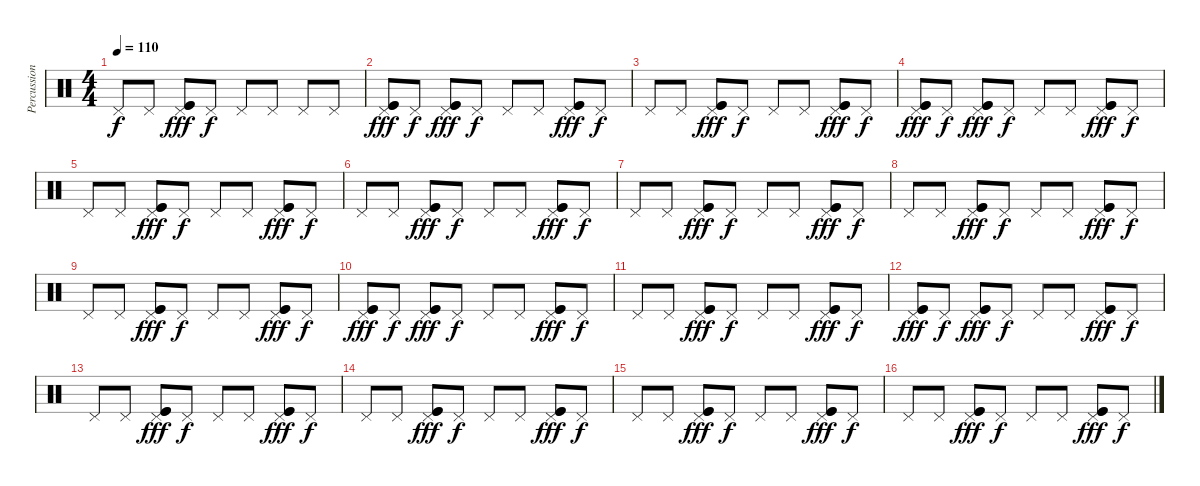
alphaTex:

\track ("Percussion" "Percussion") {instrument percussion}
\staff {score}
\articulation defaults
\ts (4 4)
\tempo 110
\clef neutral
\ks c "Pedal Hi-Hat (hit)".8{dy f} "Pedal Hi-Hat (hit)".8
("Pedal Hi-Hat (hit)" "Kick (hit)" "Kick (hit)").8{dy fff} "Pedal Hi-Hat (hit)".8{dy f} "Pedal Hi-Hat (hit)".8 "Pedal Hi-Hat (hit)".8 "Pedal Hi-Hat (hit)".8 "Pedal Hi-Hat (hit)".8 |
("Pedal Hi-Hat (hit)" "Kick (hit)" "Kick (hit)").8{dy fff} "Pedal Hi-Hat (hit)".8{dy f} ("Pedal Hi-Hat (hit)" "Kick (hit)" "Kick (hit)").8{dy fff} "Pedal Hi-Hat (hit)".8{dy f} "Pedal Hi-Hat (hit)".8 "Pedal Hi-Hat (hit)".8 ("Pedal Hi-Hat (hit)" "Kick (hit)" "Kick (hit)").8{dy fff} "Pedal Hi-Hat (hit)".8{dy f} |
"Pedal Hi-Hat (hit)".8 "Pedal Hi-Hat (hit)".8 ("Pedal Hi-Hat (hit)" "Kick (hit)" "Kick (hit)").8{dy fff} "Pedal Hi-Hat (hit)".8{dy f} "Pedal Hi-Hat (hit)".8 "Pedal Hi-Hat (hit)".8 ("Pedal Hi-Hat (hit)" "Kick (hit)" "Kick (hit)").8{dy fff} "Pedal Hi-Hat (hit)".8{dy f} |
("Pedal Hi-Hat (hit)" "Kick (hit)" "Kick (hit)").8{dy fff} "Pedal Hi-Hat (hit)".8{dy f} ("Pedal Hi-Hat (hit)" "Kick (hit)" "Kick (hit)").8{dy fff} "Pedal Hi-Hat (hit)".8{dy f} "Pedal Hi-Hat (hit)".8 "Pedal Hi-Hat (hit)".8 ("Pedal Hi-Hat (hit)" "Kick (hit)" "Kick (hit)").8{dy fff} "Pedal Hi-Hat (hit)".8{dy f} |
"Pedal Hi-Hat (hit)".8 "Pedal Hi-Hat (hit)".8 ("Pedal Hi-Hat (hit)" "Kick (hit)" "Kick (hit)").8{dy fff} "Pedal Hi-Hat (hit)".8{dy f} "Pedal Hi-Hat (hit)".8 "Pedal Hi-Hat (hit)".8 ("Pedal Hi-Hat (hit)" "Kick (hit)" "Kick (hit)").8{dy fff} "Pedal Hi-Hat (hit)".8{dy f} |
"Pedal Hi-Hat (hit)".8 "Pedal Hi-Hat (hit)".8 ("Pedal Hi-Hat (hit)" "Kick (hit)" "Kick (hit)").8{dy fff} "Pedal Hi-Hat (hit)".8{dy f} "Pedal Hi-Hat (hit)".8 "Pedal Hi-Hat (hit)".8 ("Pedal Hi-Hat (hit)" "Kick (hit)" "Kick (hit)").8{dy fff} "Pedal Hi-Hat (hit)".8{dy f} |
"Pedal Hi-Hat (hit)".8 "Pedal Hi-Hat (hit)".8 ("Pedal Hi-Hat (hit)" "Kick (hit)" "Kick (hit)").8{dy fff} "Pedal Hi-Hat (hit)".8{dy f} "Pedal Hi-Hat (hit)".8 "Pedal Hi-Hat (hit)".8 ("Pedal Hi-Hat (hit)" "Kick (hit)" "Kick (hit)").8{dy fff} "Pedal Hi-Hat (hit)".8{dy f} |
"Pedal Hi-Hat (hit)".8 "Pedal Hi-Hat (hit)".8 ("Pedal Hi-Hat (hit)" "Kick (hit)" "Kick (hit)").8{dy fff} "Pedal Hi-Hat (hit)".8{dy f} "Pedal Hi-Hat (hit)".8 "Pedal Hi-Hat (hit)".8 ("Pedal Hi-Hat (hit)" "Kick (hit)" "Kick (hit)").8{dy fff} "Pedal Hi-Hat (hit)".8{dy f} |
"Pedal Hi-Hat (hit)".8 "Pedal Hi-Hat (hit)".8 ("Pedal Hi-Hat (hit)" "Kick (hit)" "Kick (hit)").8{dy fff} "Pedal Hi-Hat (hit)".8{dy f} "Pedal Hi-Hat (hit)".8 "Pedal Hi-Hat (hit)".8 ("Pedal Hi-Hat (hit)" "Kick (hit)" "Kick (hit)").8{dy fff} "Pedal Hi-Hat (hit)".8{dy f} |
("Pedal Hi-Hat (hit)" "Kick (hit)" "Kick (hit)").8{dy fff} "Pedal Hi-Hat (hit)".8{dy f} ("Pedal Hi-Hat (hit)" "Kick (hit)" "Kick (hit)").8{dy fff} "Pedal Hi-Hat (hit)".8{dy f} "Pedal Hi-Hat (hit)".8 "Pedal Hi-Hat (hit)".8 ("Pedal Hi-Hat (hit)" "Kick (hit)" "Kick (hit)").8{dy fff} "Pedal Hi-Hat (hit)".8{dy f} |
"Pedal Hi-Hat (hit)".8 "Pedal Hi-Hat (hit)".8 ("Pedal Hi-Hat (hit)" "Kick (hit)" "Kick (hit)").8{dy fff} "Pedal Hi-Hat (hit)".8{dy f} "Pedal Hi-Hat (hit)".8 "Pedal Hi-Hat (hit)".8 ("Pedal Hi-Hat (hit)" "Kick (hit)" "Kick (hit)").8{dy fff} "Pedal Hi-Hat (hit)".8{dy f} |
("Pedal Hi-Hat (hit)" "Kick (hit)" "Kick (hit)").8{dy fff} "Pedal Hi-Hat (hit)".8{dy f} ("Pedal Hi-Hat (hit)" "Kick (hit)" "Kick (hit)").8{dy fff} "Pedal Hi-Hat (hit)".8{dy f} "Pedal Hi-Hat (hit)".8 "Pedal Hi-Hat (hit)".8 ("Pedal Hi-Hat (hit)" "Kick (hit)" "Kick (hit)").8{dy fff} "Pedal Hi-Hat (hit)".8{dy f} |
"Pedal Hi-Hat (hit)".8 "Pedal Hi-Hat (hit)".8 ("Pedal Hi-Hat (hit)" "Kick (hit)" "Kick (hit)").8{dy fff} "Pedal Hi-Hat (hit)".8{dy f} "Pedal Hi-Hat (hit)".8 "Pedal Hi-Hat (hit)".8 ("Pedal Hi-Hat (hit)" "Kick (hit)" "Kick (hit)").8{dy fff} "Pedal Hi-Hat (hit)".8{dy f} |
"Pedal Hi-Hat (hit)".8 "Pedal Hi-Hat (hit)".8 ("Pedal Hi-Hat (hit)" "Kick (hit)" "Kick (hit)").8{dy fff} "Pedal Hi-Hat (hit)".8{dy f} "Pedal Hi-Hat (hit)".8 "Pedal Hi-Hat (hit)".8 ("Pedal Hi-Hat (hit)" "Kick (hit)" "Kick (hit)").8{dy fff} "Pedal Hi-Hat (hit)".8{dy f} |
"Pedal Hi-Hat (hit)".8 "Pedal Hi-Hat (hit)".8 ("Pedal Hi-Hat (hit)" "Kick (hit)" "Kick (hit)").8{dy fff} "Pedal Hi-Hat (hit)".8{dy f} "Pedal Hi-Hat (hit)".8 "Pedal Hi-Hat (hit)".8 ("Pedal Hi-Hat (hit)" "Kick (hit)" "Kick (hit)").8{dy fff} "Pedal Hi-Hat (hit)".8{dy f} |
"Pedal Hi-Hat (hit)".8 "Pedal Hi-Hat (hit)".8 ("Pedal Hi-Hat (hit)" "Kick (hit)" "Kick (hit)").8{dy fff} "Pedal Hi-Hat (hit)".8{dy f} "Pedal Hi-Hat (hit)".8 "Pedal Hi-Hat (hit)".8 ("Pedal Hi-Hat (hit)" "Kick (hit)" "Kick (hit)").8{dy fff} "Pedal Hi-Hat (hit)".8{dy f}
